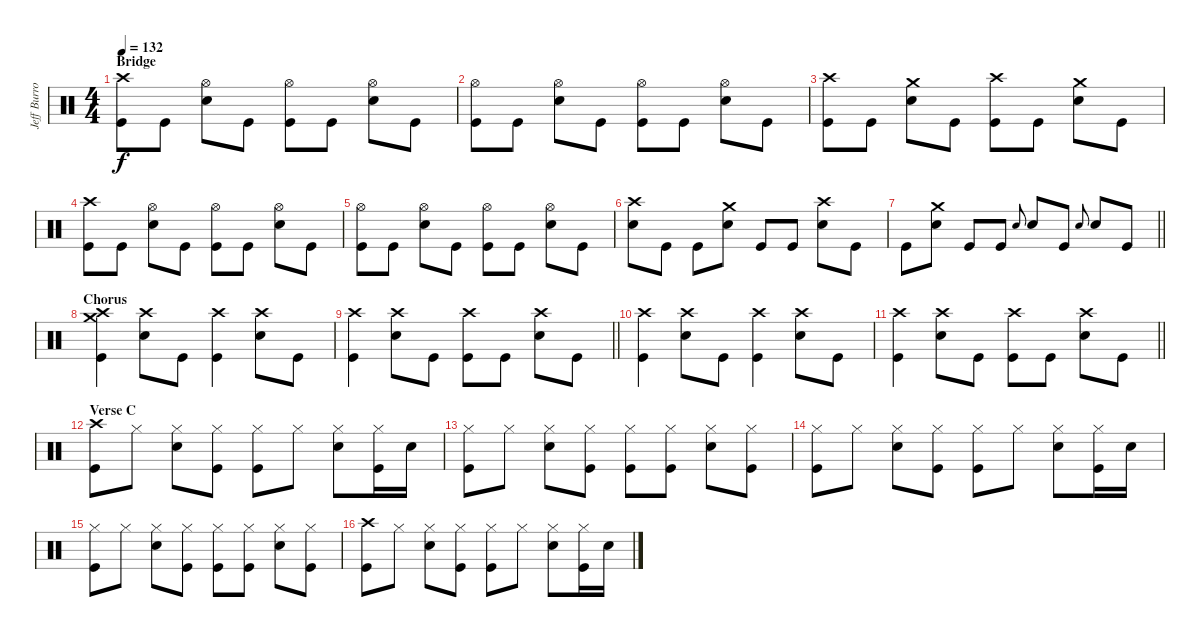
\track ("Jeff Burrows (Percussion)" "Jeff Burro") {instrument percussion}
\staff {score}
\articulation defaults
\ts (4 4)
\section ("" "Bridge")
\tempo 132
\clef neutral
\ks c
("Crash high (hit)" "Kick (hit)").8{dy f} "Kick (hit)".8 ("Hi-Hat (open)" "Snare (hit) 2").8 "Kick (hit)".8 ("Hi-Hat (open)" "Kick (hit)").8 "Kick (hit)".8 ("Hi-Hat (open)" "Snare (hit) 2").8 "Kick (hit)".8 |
("Hi-Hat (open)" "Kick (hit)").8 "Kick (hit)".8 ("Hi-Hat (open)" "Snare (hit) 2").8 "Kick (hit)".8 ("Hi-Hat (open)" "Kick (hit)").8 "Kick (hit)".8 ("Hi-Hat (open)" "Snare (hit) 2").8 "Kick (hit)".8 |
("Crash high (hit)" "Kick (hit)").8 "Kick (hit)".8 ("Crash medium (hit)" "Snare (hit) 2").8 "Kick (hit)".8 ("Crash high (hit)" "Kick (hit)").8 "Kick (hit)".8 ("Crash medium (hit)" "Snare (hit) 2").8 "Kick (hit)".8 |
("Crash high (hit)" "Kick (hit)").8 "Kick (hit)".8 ("Hi-Hat (open)" "Snare (hit) 2").8 "Kick (hit)".8 ("Hi-Hat (open)" "Kick (hit)").8 "Kick (hit)".8 ("Hi-Hat (open)" "Snare (hit) 2").8 "Kick (hit)".8 |
("Hi-Hat (open)" "Kick (hit)").8 "Kick (hit)".8 ("Hi-Hat (open)" "Snare (hit) 2").8 "Kick (hit)".8 ("Hi-Hat (open)" "Kick (hit)").8 "Kick (hit)".8 ("Hi-Hat (open)" "Snare (hit) 2").8 "Kick (hit)".8 |
("Crash high (hit)" "Snare (hit) 2").8 "Kick (hit)".8 "Kick (hit)".8 ("Crash medium (hit)" "Snare (hit) 2").8 "Kick (hit)".8 "Kick (hit)".8 ("Crash high (hit)" "Snare (hit) 2").8 "Kick (hit)".8 |
\barLineRight lightlight "Kick (hit)".8
("Crash medium (hit)" "Snare (hit) 2").8 "Kick (hit)".8 "Kick (hit)".8 "Snare (hit) 2".8{gr onbeat} "Snare (hit) 2".8 "Kick (hit)".8 "Snare (hit) 2".8{gr onbeat} "Snare (hit) 2".8 "Kick (hit)".8 |
\section ("" "Chorus")
("Crash medium (hit)" "Crash high (hit)" "Kick (hit)").4 ("Crash high (hit)" "Snare (hit) 2").8 "Kick (hit)".8 ("Crash high (hit)" "Kick (hit)").4 ("Crash high (hit)" "Snare (hit) 2").8 "Kick (hit)".8 |
\barLineRight lightlight
("Crash high (hit)" "Kick (hit)").4 ("Crash high (hit)" "Snare (hit) 2").8 "Kick (hit)".8 ("Crash high (hit)" "Kick (hit)").8 "Kick (hit)".8 ("Crash high (hit)" "Snare (hit) 2").8 "Kick (hit)".8 |
("Crash high (hit)" "Kick (hit)").4 ("Crash high (hit)" "Snare (hit) 2").8 "Kick (hit)".8 ("Crash high (hit)" "Kick (hit)").4 ("Crash high (hit)" "Snare (hit) 2").8 "Kick (hit)".8 |
\barLineRight lightlight
("Crash high (hit)" "Kick (hit)").4 ("Crash high (hit)" "Snare (hit) 2").8 "Kick (hit)".8 ("Crash high (hit)" "Kick (hit)").8 "Kick (hit)".8 ("Crash high (hit)" "Snare (hit) 2").8 "Kick (hit)".8 |
\section ("" "Verse C")
("Crash high (hit)" "Kick (hit)").8 "Hi-Hat (closed)".8 ("Hi-Hat (closed)" "Snare (hit) 2").8 ("Hi-Hat (closed)" "Kick (hit)").8 ("Hi-Hat (closed)" "Kick (hit)").8 "Hi-Hat (closed)".8 ("Hi-Hat (closed)" "Snare (hit) 2").8 ("Hi-Hat (closed)" "Kick (hit)").16 "Snare (hit) 2".16 |
("Hi-Hat (closed)" "Kick (hit)").8 "Hi-Hat (closed)".8 ("Hi-Hat (closed)" "Snare (hit) 2").8 ("Hi-Hat (closed)" "Kick (hit)").8 ("Hi-Hat (closed)" "Kick (hit)").8 ("Hi-Hat (closed)" "Kick (hit)").8 ("Hi-Hat (closed)" "Snare (hit) 2").8 ("Hi-Hat (closed)" "Kick (hit)").8 |
("Hi-Hat (closed)" "Kick (hit)").8 "Hi-Hat (closed)".8 ("Hi-Hat (closed)" "Snare (hit) 2").8 ("Hi-Hat (closed)" "Kick (hit)").8 ("Hi-Hat (closed)" "Kick (hit)").8 "Hi-Hat (closed)".8 ("Hi-Hat (closed)" "Snare (hit) 2").8 ("Hi-Hat (closed)" "Kick (hit)").16 "Snare (hit) 2".16 |
("Hi-Hat (closed)" "Kick (hit)").8 "Hi-Hat (closed)".8 ("Hi-Hat (closed)" "Snare (hit) 2").8 ("Hi-Hat (closed)" "Kick (hit)").8 ("Hi-Hat (closed)" "Kick (hit)").8 ("Hi-Hat (closed)" "Kick (hit)").8 ("Hi-Hat (closed)" "Snare (hit) 2").8 ("Hi-Hat (closed)" "Kick (hit)").8 |
("Crash high (hit)" "Kick (hit)").8 "Hi-Hat (closed)".8 ("Hi-Hat (closed)" "Snare (hit) 2").8 ("Hi-Hat (closed)" "Kick (hit)").8 ("Hi-Hat (closed)" "Kick (hit)").8 "Hi-Hat (closed)".8 ("Hi-Hat (closed)" "Snare (hit) 2").8 ("Hi-Hat (closed)" "Kick (hit)").16 "Snare (hit) 2".16
